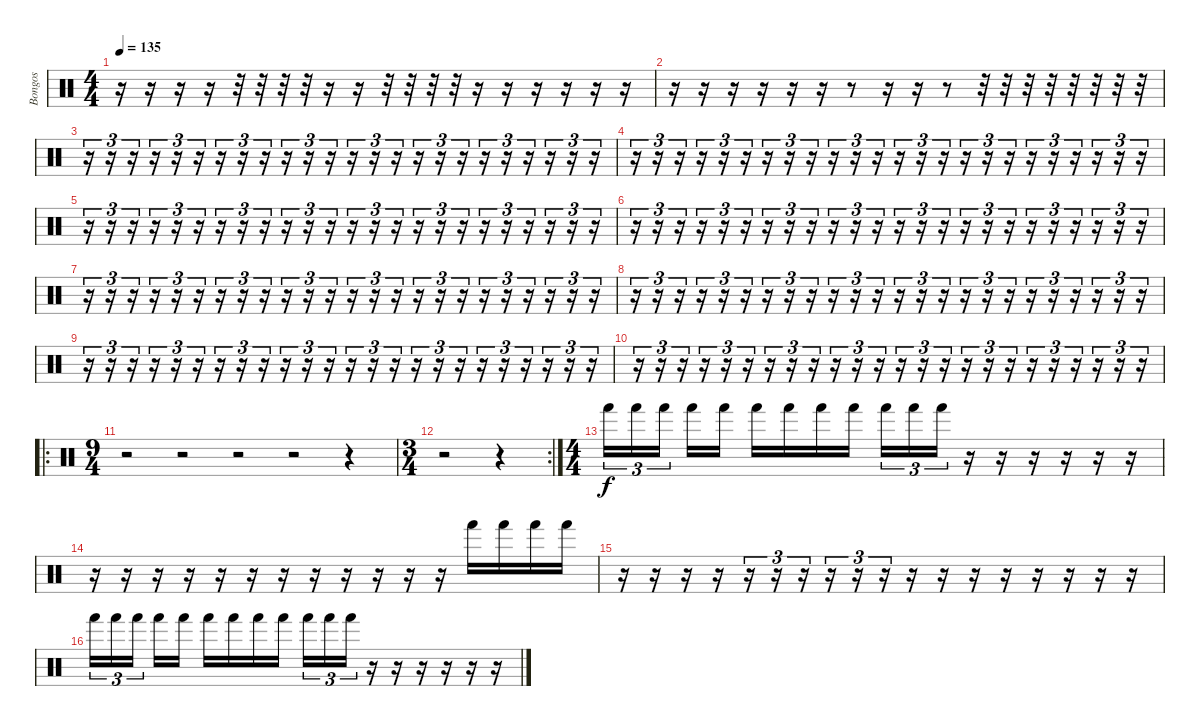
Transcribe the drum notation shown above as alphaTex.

\track ("Bongos" "Bongos") {mute instrument percussion}
\staff {score}
\articulation defaults
\ts (4 4)
\tempo 135
\clef neutral
\ks c
r.16{dy f} r.16 r.16 r.16 r.32 r.32 r.32 r.32 r.16 r.16 r.32 r.32 r.32 r.32 r.16 r.16 r.16 r.16 r.16 r.16 |
r.16 r.16 r.16 r.16 r.16 r.16 r.8 r.16 r.16 r.8 r.32 r.32 r.32 r.32 r.32 r.32 r.32 r.32 |
r.16{tu (3 2)} r.16{tu (3 2)} r.16{tu (3 2)} r.16{tu (3 2)} r.16{tu (3 2)} r.16{tu (3 2)} r.16{tu (3 2)} r.16{tu (3 2)} r.16{tu (3 2)} r.16{tu (3 2)} r.16{tu (3 2)} r.16{tu (3 2)} r.16{tu (3 2)} r.16{tu (3 2)} r.16{tu (3 2)} r.16{tu (3 2)} r.16{tu (3 2)} r.16{tu (3 2)} r.16{tu (3 2)} r.16{tu (3 2)} r.16{tu (3 2)} r.16{tu (3 2)} r.16{tu (3 2)} r.16{tu (3 2)} |
r.16{tu (3 2)} r.16{tu (3 2)} r.16{tu (3 2)} r.16{tu (3 2)} r.16{tu (3 2)} r.16{tu (3 2)} r.16{tu (3 2)} r.16{tu (3 2)} r.16{tu (3 2)} r.16{tu (3 2)} r.16{tu (3 2)} r.16{tu (3 2)} r.16{tu (3 2)} r.16{tu (3 2)} r.16{tu (3 2)} r.16{tu (3 2)} r.16{tu (3 2)} r.16{tu (3 2)} r.16{tu (3 2)} r.16{tu (3 2)} r.16{tu (3 2)} r.16{tu (3 2)} r.16{tu (3 2)} r.16{tu (3 2)} |
r.16{tu (3 2)} r.16{tu (3 2)} r.16{tu (3 2)} r.16{tu (3 2)} r.16{tu (3 2)} r.16{tu (3 2)} r.16{tu (3 2)} r.16{tu (3 2)} r.16{tu (3 2)} r.16{tu (3 2)} r.16{tu (3 2)} r.16{tu (3 2)} r.16{tu (3 2)} r.16{tu (3 2)} r.16{tu (3 2)} r.16{tu (3 2)} r.16{tu (3 2)} r.16{tu (3 2)} r.16{tu (3 2)} r.16{tu (3 2)} r.16{tu (3 2)} r.16{tu (3 2)} r.16{tu (3 2)} r.16{tu (3 2)} |
r.16{tu (3 2)} r.16{tu (3 2)} r.16{tu (3 2)} r.16{tu (3 2)} r.16{tu (3 2)} r.16{tu (3 2)} r.16{tu (3 2)} r.16{tu (3 2)} r.16{tu (3 2)} r.16{tu (3 2)} r.16{tu (3 2)} r.16{tu (3 2)} r.16{tu (3 2)} r.16{tu (3 2)} r.16{tu (3 2)} r.16{tu (3 2)} r.16{tu (3 2)} r.16{tu (3 2)} r.16{tu (3 2)} r.16{tu (3 2)} r.16{tu (3 2)} r.16{tu (3 2)} r.16{tu (3 2)} r.16{tu (3 2)} |
r.16{tu (3 2)} r.16{tu (3 2)} r.16{tu (3 2)} r.16{tu (3 2)} r.16{tu (3 2)} r.16{tu (3 2)} r.16{tu (3 2)} r.16{tu (3 2)} r.16{tu (3 2)} r.16{tu (3 2)} r.16{tu (3 2)} r.16{tu (3 2)} r.16{tu (3 2)} r.16{tu (3 2)} r.16{tu (3 2)} r.16{tu (3 2)} r.16{tu (3 2)} r.16{tu (3 2)} r.16{tu (3 2)} r.16{tu (3 2)} r.16{tu (3 2)} r.16{tu (3 2)} r.16{tu (3 2)} r.16{tu (3 2)} |
r.16{tu (3 2)} r.16{tu (3 2)} r.16{tu (3 2)} r.16{tu (3 2)} r.16{tu (3 2)} r.16{tu (3 2)} r.16{tu (3 2)} r.16{tu (3 2)} r.16{tu (3 2)} r.16{tu (3 2)} r.16{tu (3 2)} r.16{tu (3 2)} r.16{tu (3 2)} r.16{tu (3 2)} r.16{tu (3 2)} r.16{tu (3 2)} r.16{tu (3 2)} r.16{tu (3 2)} r.16{tu (3 2)} r.16{tu (3 2)} r.16{tu (3 2)} r.16{tu (3 2)} r.16{tu (3 2)} r.16{tu (3 2)} |
r.16{tu (3 2)} r.16{tu (3 2)} r.16{tu (3 2)} r.16{tu (3 2)} r.16{tu (3 2)} r.16{tu (3 2)} r.16{tu (3 2)} r.16{tu (3 2)} r.16{tu (3 2)} r.16{tu (3 2)} r.16{tu (3 2)} r.16{tu (3 2)} r.16{tu (3 2)} r.16{tu (3 2)} r.16{tu (3 2)} r.16{tu (3 2)} r.16{tu (3 2)} r.16{tu (3 2)} r.16{tu (3 2)} r.16{tu (3 2)} r.16{tu (3 2)} r.16{tu (3 2)} r.16{tu (3 2)} r.16{tu (3 2)} |
r.16{tu (3 2)} r.16{tu (3 2)} r.16{tu (3 2)} r.16{tu (3 2)} r.16{tu (3 2)} r.16{tu (3 2)} r.16{tu (3 2)} r.16{tu (3 2)} r.16{tu (3 2)} r.16{tu (3 2)} r.16{tu (3 2)} r.16{tu (3 2)} r.16{tu (3 2)} r.16{tu (3 2)} r.16{tu (3 2)} r.16{tu (3 2)} r.16{tu (3 2)} r.16{tu (3 2)} r.16{tu (3 2)} r.16{tu (3 2)} r.16{tu (3 2)} r.16{tu (3 2)} r.16{tu (3 2)} r.16{tu (3 2)} |
\ro
\ts (9 4)
r.2 r.2 r.2 r.2 r.4 |
\rc 2
\ts (3 4)
r.2 r.4 |
\ts (4 4)
"Hand (hit)".16{tu (3 2)} "Hand (hit)".16{tu (3 2)} "Hand (hit)".16{tu (3 2) beam splitsecondary} "Hand (hit)".16 "Hand (hit)".16 "Hand (hit)".16 "Hand (hit)".16 "Hand (hit)".16 "Hand (hit)".16 "Hand (hit)".16{tu (3 2)} "Hand (hit)".16{tu (3 2)} "Hand (hit)".16{tu (3 2)} r.16 r.16 r.16 r.16 r.16 r.16 |
r.16 r.16 r.16 r.16 r.16 r.16 r.16 r.16 r.16 r.16 r.16 r.16 "Hand (hit)".16 "Hand (hit)".16 "Hand (hit)".16 "Hand (hit)".16 |
r.16 r.16 r.16 r.16 r.16{tu (3 2)} r.16{tu (3 2)} r.16{tu (3 2)} r.16{tu (3 2)} r.16{tu (3 2)} r.16{tu (3 2)} r.16 r.16 r.16 r.16 r.16 r.16 r.16 r.16 |
"Hand (hit)".16{tu (3 2)} "Hand (hit)".16{tu (3 2)} "Hand (hit)".16{tu (3 2) beam splitsecondary} "Hand (hit)".16 "Hand (hit)".16 "Hand (hit)".16 "Hand (hit)".16 "Hand (hit)".16 "Hand (hit)".16 "Hand (hit)".16{tu (3 2)} "Hand (hit)".16{tu (3 2)} "Hand (hit)".16{tu (3 2)} r.16 r.16 r.16 r.16 r.16 r.16
